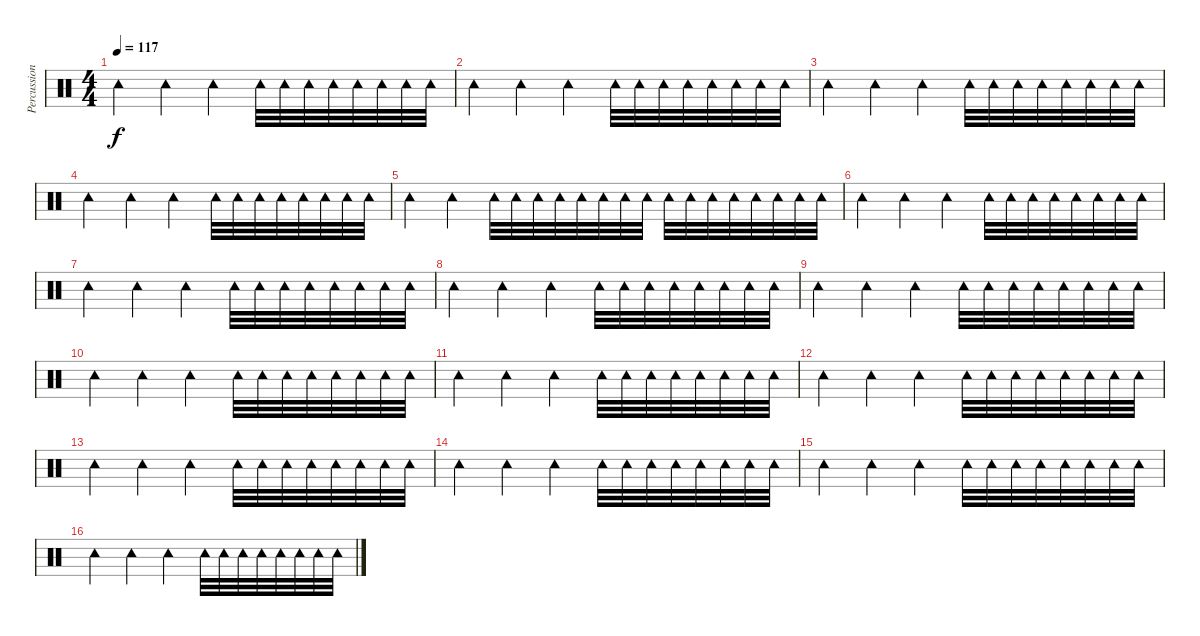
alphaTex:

\track ("Percussion" "Percussion") {instrument percussion}
\staff {score}
\articulation defaults
\ts (4 4)
\tempo 117
\clef neutral
\ks c "Tambourine (hit)".4{dy f} "Tambourine (hit)".4 "Tambourine (hit)".4 "Tambourine (hit)".32 "Tambourine (hit)".32 "Tambourine (hit)".32 "Tambourine (hit)".32 "Tambourine (hit)".32 "Tambourine (hit)".32 "Tambourine (hit)".32 "Tambourine (hit)".32
|
"Tambourine (hit)".4 "Tambourine (hit)".4 "Tambourine (hit)".4 "Tambourine (hit)".32 "Tambourine (hit)".32 "Tambourine (hit)".32 "Tambourine (hit)".32 "Tambourine (hit)".32 "Tambourine (hit)".32 "Tambourine (hit)".32 "Tambourine (hit)".32 |
"Tambourine (hit)".4 "Tambourine (hit)".4 "Tambourine (hit)".4 "Tambourine (hit)".32 "Tambourine (hit)".32 "Tambourine (hit)".32 "Tambourine (hit)".32 "Tambourine (hit)".32 "Tambourine (hit)".32 "Tambourine (hit)".32 "Tambourine (hit)".32 |
"Tambourine (hit)".4 "Tambourine (hit)".4 "Tambourine (hit)".4 "Tambourine (hit)".32 "Tambourine (hit)".32 "Tambourine (hit)".32 "Tambourine (hit)".32 "Tambourine (hit)".32 "Tambourine (hit)".32 "Tambourine (hit)".32 "Tambourine (hit)".32 |
"Tambourine (hit)".4 "Tambourine (hit)".4 "Tambourine (hit)".32 "Tambourine (hit)".32 "Tambourine (hit)".32 "Tambourine (hit)".32 "Tambourine (hit)".32 "Tambourine (hit)".32 "Tambourine (hit)".32 "Tambourine (hit)".32 "Tambourine (hit)".32 "Tambourine (hit)".32 "Tambourine (hit)".32 "Tambourine (hit)".32 "Tambourine (hit)".32 "Tambourine (hit)".32 "Tambourine (hit)".32 "Tambourine (hit)".32 |
"Tambourine (hit)".4 "Tambourine (hit)".4 "Tambourine (hit)".4 "Tambourine (hit)".32 "Tambourine (hit)".32 "Tambourine (hit)".32 "Tambourine (hit)".32 "Tambourine (hit)".32 "Tambourine (hit)".32 "Tambourine (hit)".32 "Tambourine (hit)".32 |
"Tambourine (hit)".4 "Tambourine (hit)".4 "Tambourine (hit)".4 "Tambourine (hit)".32 "Tambourine (hit)".32 "Tambourine (hit)".32 "Tambourine (hit)".32 "Tambourine (hit)".32 "Tambourine (hit)".32 "Tambourine (hit)".32 "Tambourine (hit)".32 |
"Tambourine (hit)".4 "Tambourine (hit)".4 "Tambourine (hit)".4 "Tambourine (hit)".32 "Tambourine (hit)".32 "Tambourine (hit)".32 "Tambourine (hit)".32 "Tambourine (hit)".32 "Tambourine (hit)".32 "Tambourine (hit)".32 "Tambourine (hit)".32 |
"Tambourine (hit)".4 "Tambourine (hit)".4 "Tambourine (hit)".4 "Tambourine (hit)".32 "Tambourine (hit)".32 "Tambourine (hit)".32 "Tambourine (hit)".32 "Tambourine (hit)".32 "Tambourine (hit)".32 "Tambourine (hit)".32 "Tambourine (hit)".32 |
"Tambourine (hit)".4 "Tambourine (hit)".4 "Tambourine (hit)".4 "Tambourine (hit)".32 "Tambourine (hit)".32 "Tambourine (hit)".32 "Tambourine (hit)".32 "Tambourine (hit)".32 "Tambourine (hit)".32 "Tambourine (hit)".32 "Tambourine (hit)".32 |
"Tambourine (hit)".4 "Tambourine (hit)".4 "Tambourine (hit)".4 "Tambourine (hit)".32 "Tambourine (hit)".32 "Tambourine (hit)".32 "Tambourine (hit)".32 "Tambourine (hit)".32 "Tambourine (hit)".32 "Tambourine (hit)".32 "Tambourine (hit)".32 |
"Tambourine (hit)".4 "Tambourine (hit)".4 "Tambourine (hit)".4 "Tambourine (hit)".32 "Tambourine (hit)".32 "Tambourine (hit)".32 "Tambourine (hit)".32 "Tambourine (hit)".32 "Tambourine (hit)".32 "Tambourine (hit)".32 "Tambourine (hit)".32 |
"Tambourine (hit)".4 "Tambourine (hit)".4 "Tambourine (hit)".4 "Tambourine (hit)".32 "Tambourine (hit)".32 "Tambourine (hit)".32 "Tambourine (hit)".32 "Tambourine (hit)".32 "Tambourine (hit)".32 "Tambourine (hit)".32 "Tambourine (hit)".32 |
"Tambourine (hit)".4 "Tambourine (hit)".4 "Tambourine (hit)".4 "Tambourine (hit)".32 "Tambourine (hit)".32 "Tambourine (hit)".32 "Tambourine (hit)".32 "Tambourine (hit)".32 "Tambourine (hit)".32 "Tambourine (hit)".32 "Tambourine (hit)".32 |
"Tambourine (hit)".4 "Tambourine (hit)".4 "Tambourine (hit)".4 "Tambourine (hit)".32 "Tambourine (hit)".32 "Tambourine (hit)".32 "Tambourine (hit)".32 "Tambourine (hit)".32 "Tambourine (hit)".32 "Tambourine (hit)".32 "Tambourine (hit)".32 |
"Tambourine (hit)".4 "Tambourine (hit)".4 "Tambourine (hit)".4 "Tambourine (hit)".32 "Tambourine (hit)".32 "Tambourine (hit)".32 "Tambourine (hit)".32 "Tambourine (hit)".32 "Tambourine (hit)".32 "Tambourine (hit)".32 "Tambourine (hit)".32
